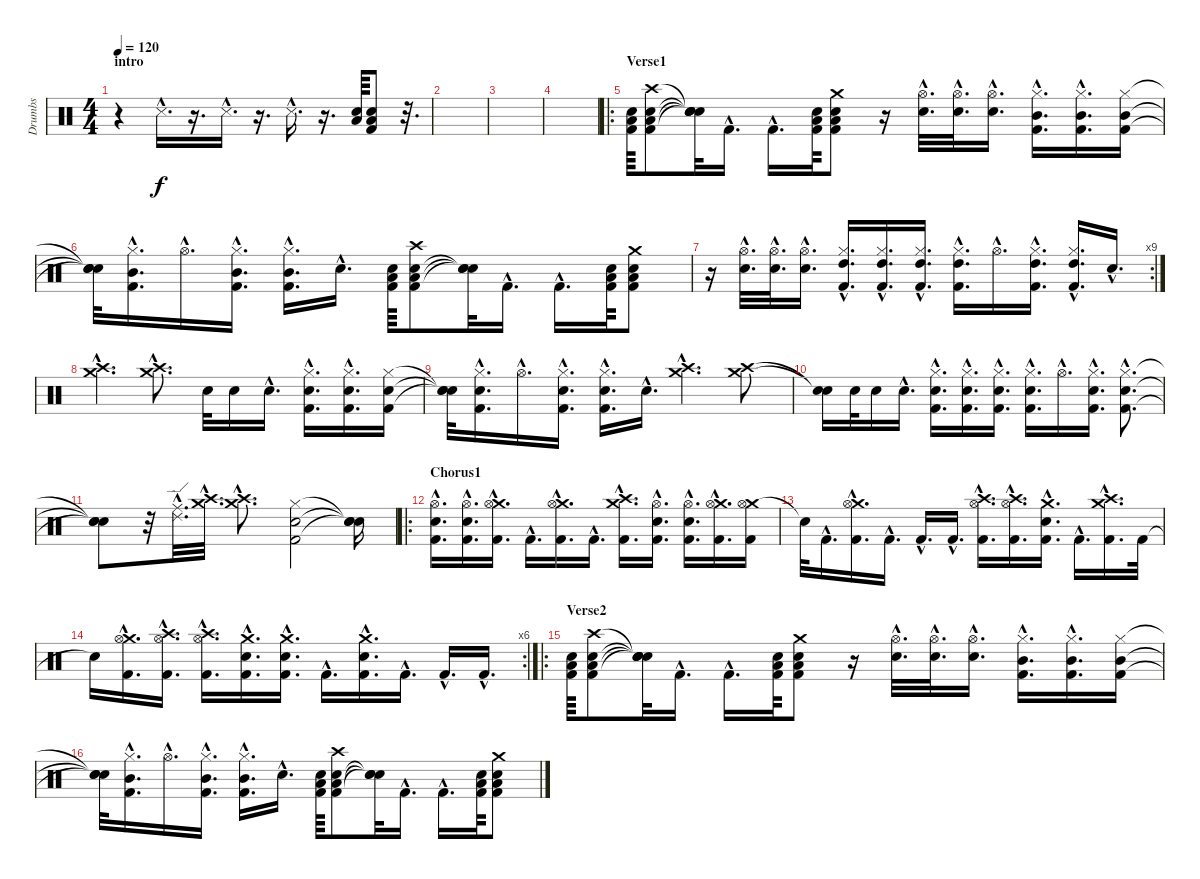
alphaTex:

\track ("Drumbs" "Drumbs") {instrument percussion}
\staff {score}
\articulation defaults
\ts (4 4)
\section ("" "intro")
\tempo 120
\clef neutral
\ks c
r.4{dy f} "Snare (side stick) 3"{hac}.16{d} r.16{d} "Snare (side stick) 3"{hac}.16{d} r.16{d} "Snare (side stick) 3"{hac}.16{d} r.16{d} ("Electric Snare (hit)" "Low Tom (hit)").64 ("Electric Snare (hit)" "Kick (hit) 2" "Low Tom (hit)").8 r.32{d} |
|
|
|
\ro
\section ("" "Verse1")
("Electric Snare (hit)" "Kick (hit) 2" "Low Tom (hit)").64 ("Electric Snare (hit)" "Kick (hit) 2" "Low Tom (hit)" "Crash high (hit)").8 ("Snare (hit)"{t} "Snare (hit)"{t} "Snare (hit)"{t} "Snare (hit)"{t}).32 "Kick (hit) 2"{hac}.16{d} "Kick (hit) 2"{hac}.16{d} ("Electric Snare (hit)" "Kick (hit) 2" "Low Tom (hit)").64 ("Electric Snare (hit)" "Kick (hit) 2" "Low Tom (hit)" "Crash medium (hit)").8 r.16 ("Electric Snare (hit)"{hac} "Hi-Hat (open)"{hac}).32{d} ("Electric Snare (hit)"{hac} "Hi-Hat (open)"{hac}).32{d} ("Electric Snare (hit)"{hac} "Hi-Hat (open)"{hac}).16{d} ("Mid Tom (hit)"{hac} "Kick (hit) 2"{hac} "Hi-Hat (closed)"{hac}).16{d} ("Mid Tom (hit)"{hac} "Kick (hit) 2"{hac} "Hi-Hat (closed)"{hac}).16{d} ("Mid Tom (hit)" "Kick (hit) 2" "Hi-Hat (closed)").16 |
("Snare (hit)"{t} "Snare (hit)"{t} "Snare (hit)"{t}).32 ("Mid Tom (hit)"{hac} "Kick (hit) 2"{hac} "Hi-Hat (closed)"{hac}).16{d} "Hi-Hat (open)"{hac}.16{d} ("Mid Tom (hit)"{hac} "Kick (hit) 2"{hac} "Hi-Hat (closed)"{hac}).16{d} ("Mid Tom (hit)"{hac} "Kick (hit) 2"{hac} "Hi-Hat (closed)"{hac}).16{d} "Electric Snare (hit)"{hac}.16{d} ("Electric Snare (hit)" "Kick (hit) 2" "Low Tom (hit)").64 ("Electric Snare (hit)" "Kick (hit) 2" "Low Tom (hit)" "Crash high (hit)").8 ("Snare (hit)"{t} "Snare (hit)"{t} "Snare (hit)"{t}).32 "Kick (hit) 2"{hac}.16{d} "Kick (hit) 2"{hac}.16{d} ("Electric Snare (hit)" "Kick (hit) 2" "Low Tom (hit)").64 ("Electric Snare (hit)" "Kick (hit) 2" "Low Tom (hit)" "Crash medium (hit)").8 |
\rc 9
r.16 ("Electric Snare (hit)"{hac} "Hi-Hat (open)"{hac}).32{d} ("Electric Snare (hit)"{hac} "Hi-Hat (open)"{hac}).32{d} ("Electric Snare (hit)"{hac} "Hi-Hat (open)"{hac}).16{d} ("High Tom (hit)"{hac} "Kick (hit) 2"{hac} "Hi-Hat (closed)"{hac}).16{d} ("High Tom (hit)"{hac} "Kick (hit) 2"{hac} "Hi-Hat (closed)"{hac}).16{d} ("High Tom (hit)"{hac} "Kick (hit) 2"{hac} "Hi-Hat (closed)"{hac}).16{d} ("High Tom (hit)"{hac} "Kick (hit) 2"{hac} "Hi-Hat (closed)"{hac}).16{d} "Hi-Hat (open)"{hac}.16{d} ("High Tom (hit)"{hac} "Kick (hit) 2"{hac} "Hi-Hat (closed)"{hac}).16{d} ("High Tom (hit)"{hac} "Kick (hit) 2"{hac} "Hi-Hat (closed)"{hac}).16{d} "Electric Snare (hit)"{hac}.16{d} |
("Crash high (hit)"{hac} "Crash medium (hit)"{hac}).4{d} ("Crash high (hit)"{hac} "Crash medium (hit)"{hac}).8{d} "Electric Snare (hit)".32 "Electric Snare (hit)".16 "Electric Snare (hit)"{hac}.16{d} ("Electric Snare (hit)"{hac} "Kick (hit) 2"{hac} "Hi-Hat (closed)"{hac}).16{d} ("Electric Snare (hit)"{hac} "Kick (hit) 2"{hac} "Hi-Hat (closed)"{hac}).16{d} ("Electric Snare (hit)" "Kick (hit) 2" "Hi-Hat (closed)").16 |
("Snare (hit)"{t} "Snare (hit)"{t} "Snare (hit)"{t}).32 ("Electric Snare (hit)"{hac} "Kick (hit) 2"{hac} "Hi-Hat (closed)"{hac}).16{d} "Hi-Hat (open)"{hac}.16{d} ("Electric Snare (hit)"{hac} "Kick (hit) 2"{hac} "Hi-Hat (closed)"{hac}).16{d} ("Electric Snare (hit)"{hac} "Kick (hit) 2"{hac} "Hi-Hat (closed)"{hac}).16{d} "Electric Snare (hit)"{hac}.16{d} ("Crash high (hit)"{hac} "Crash medium (hit)"{hac}).4{d} ("Crash high (hit)" "Crash medium (hit)").8 |
("Snare (hit)"{t} "Snare (hit)"{t}).16 "Electric Snare (hit)".32 "Electric Snare (hit)".16 "Electric Snare (hit)"{hac}.16{d} ("Electric Snare (hit)"{hac} "Kick (hit) 2"{hac} "Hi-Hat (closed)"{hac}).16{d} ("Electric Snare (hit)"{hac} "Kick (hit) 2"{hac} "Hi-Hat (closed)"{hac}).16{d} ("Electric Snare (hit)"{hac} "Kick (hit) 2"{hac} "Hi-Hat (closed)"{hac}).16{d} ("Electric Snare (hit)"{hac} "Kick (hit) 2"{hac} "Hi-Hat (closed)"{hac}).16{d} "Hi-Hat (open)"{hac}.16{d} ("Electric Snare (hit)"{hac} "Kick (hit) 2"{hac} "Hi-Hat (closed)"{hac}).16{d} ("Electric Snare (hit)"{hac} "Kick (hit) 2"{hac} "Hi-Hat (closed)"{hac}).8{d} |
("Snare (hit)"{t} "Electric Snare (hit)"{t} "Snare (hit)"{t}).8 r.32 ("Ride (middle)"{hac} "Ride (edge) 2"{hac}).32{d} ("Crash high (hit)"{hac} "Crash medium (hit)"{hac}).32{d} ("Crash high (hit)"{hac} "Crash medium (hit)"{hac}).8{d} ("Electric Snare (hit)" "Kick (hit) 2" "Hi-Hat (closed)").2 ("Snare (hit)"{t} "Snare (hit)"{t} "Snare (hit)"{t}).16 |
\ro
\section ("" "Chorus1")
("Hi-Hat (open)"{hac} "Electric Snare (hit)"{hac} "Kick (hit) 2"{hac}).16{d} ("Hi-Hat (open)"{hac} "Electric Snare (hit)"{hac} "Kick (hit) 2"{hac}).16{d} ("Crash medium (hit)"{hac} "Hi-Hat (open)"{hac} "Kick (hit) 2"{hac}).16{d} "Kick (hit) 2"{hac}.16{d} ("Crash medium (hit)"{hac} "Hi-Hat (open)"{hac} "Kick (hit) 2"{hac}).16{d} "Kick (hit) 2"{hac}.16{d} ("Crash medium (hit)"{hac} "Crash high (hit)"{hac} "Kick (hit) 2"{hac}).16{d} ("Hi-Hat (open)"{hac} "Electric Snare (hit)"{hac} "Kick (hit) 2"{hac}).16{d} ("Hi-Hat (open)"{hac} "Electric Snare (hit)"{hac} "Kick (hit) 2"{hac}).16{d} ("Crash medium (hit)"{hac} "Hi-Hat (open)"{hac} "Kick (hit) 2"{hac}).16{d} ("Crash medium (hit)" "Hi-Hat (open)" "Kick (hit) 2").16 |
"Snare (hit)"{t}.32 "Kick (hit) 2"{hac}.16{d} ("Crash medium (hit)"{hac} "Hi-Hat (open)"{hac} "Kick (hit) 2"{hac}).16{d} "Kick (hit) 2"{hac}.16{d} "Kick (hit) 2"{hac}.16{d} "Kick (hit) 2"{hac}.16{d} ("Hi-Hat (open)"{hac} "Crash high (hit)"{hac} "Kick (hit) 2"{hac}).16{d} ("Hi-Hat (open)"{hac} "Crash high (hit)"{hac} "Kick (hit) 2"{hac}).16{d} ("Crash medium (hit)"{hac} "Electric Snare (hit)"{hac} "Kick (hit) 2"{hac}).16{d} "Kick (hit) 2"{hac}.16{d} ("Crash medium (hit)"{hac} "Crash high (hit)"{hac} "Kick (hit) 2"{hac}).16{d} "Kick (hit) 2".32 |
\rc 6 "Snare (hit)"{t}.16
("Crash medium (hit)"{hac} "Hi-Hat (open)"{hac} "Kick (hit) 2"{hac}).16{d} ("Hi-Hat (open)"{hac} "Crash high (hit)"{hac} "Kick (hit) 2"{hac}).16{d} ("Hi-Hat (open)"{hac} "Crash high (hit)"{hac} "Kick (hit) 2"{hac}).16{d} ("Crash medium (hit)"{hac} "Electric Snare (hit)"{hac} "Kick (hit) 2"{hac}).16{d} ("Crash medium (hit)"{hac} "Electric Snare (hit)"{hac} "Kick (hit) 2"{hac}).16{d} "Kick (hit) 2"{hac}.16{d} ("Crash medium (hit)"{hac} "Electric Snare (hit)"{hac} "Kick (hit) 2"{hac}).16{d} "Kick (hit) 2"{hac}.16{d} "Kick (hit) 2"{hac}.16{d} "Kick (hit) 2"{hac}.16{d} |
\ro
\section ("" "Verse2")
("Electric Snare (hit)" "Kick (hit) 2" "Low Tom (hit)").64 ("Electric Snare (hit)" "Kick (hit) 2" "Low Tom (hit)" "Crash high (hit)").8 ("Snare (hit)"{t} "Snare (hit)"{t} "Snare (hit)"{t} "Snare (hit)"{t}).32 "Kick (hit) 2"{hac}.16{d} "Kick (hit) 2"{hac}.16{d} ("Electric Snare (hit)" "Kick (hit) 2" "Low Tom (hit)").64 ("Electric Snare (hit)" "Kick (hit) 2" "Low Tom (hit)" "Crash medium (hit)").8 r.16 ("Electric Snare (hit)"{hac} "Hi-Hat (open)"{hac}).32{d} ("Electric Snare (hit)"{hac} "Hi-Hat (open)"{hac}).32{d} ("Electric Snare (hit)"{hac} "Hi-Hat (open)"{hac}).16{d} ("Mid Tom (hit)"{hac} "Kick (hit) 2"{hac} "Hi-Hat (closed)"{hac}).16{d} ("Mid Tom (hit)"{hac} "Kick (hit) 2"{hac} "Hi-Hat (closed)"{hac}).16{d} ("Mid Tom (hit)" "Kick (hit) 2" "Hi-Hat (closed)").16 |
("Snare (hit)"{t} "Snare (hit)"{t} "Snare (hit)"{t}).32 ("Mid Tom (hit)"{hac} "Kick (hit) 2"{hac} "Hi-Hat (closed)"{hac}).16{d} "Hi-Hat (open)"{hac}.16{d} ("Mid Tom (hit)"{hac} "Kick (hit) 2"{hac} "Hi-Hat (closed)"{hac}).16{d} ("Mid Tom (hit)"{hac} "Kick (hit) 2"{hac} "Hi-Hat (closed)"{hac}).16{d} "Electric Snare (hit)"{hac}.16{d} ("Electric Snare (hit)" "Kick (hit) 2" "Low Tom (hit)").64 ("Electric Snare (hit)" "Kick (hit) 2" "Low Tom (hit)" "Crash high (hit)").8 ("Snare (hit)"{t} "Snare (hit)"{t} "Snare (hit)"{t}).32 "Kick (hit) 2"{hac}.16{d} "Kick (hit) 2"{hac}.16{d} ("Electric Snare (hit)" "Kick (hit) 2" "Low Tom (hit)").64 ("Electric Snare (hit)" "Kick (hit) 2" "Low Tom (hit)" "Crash medium (hit)").8
